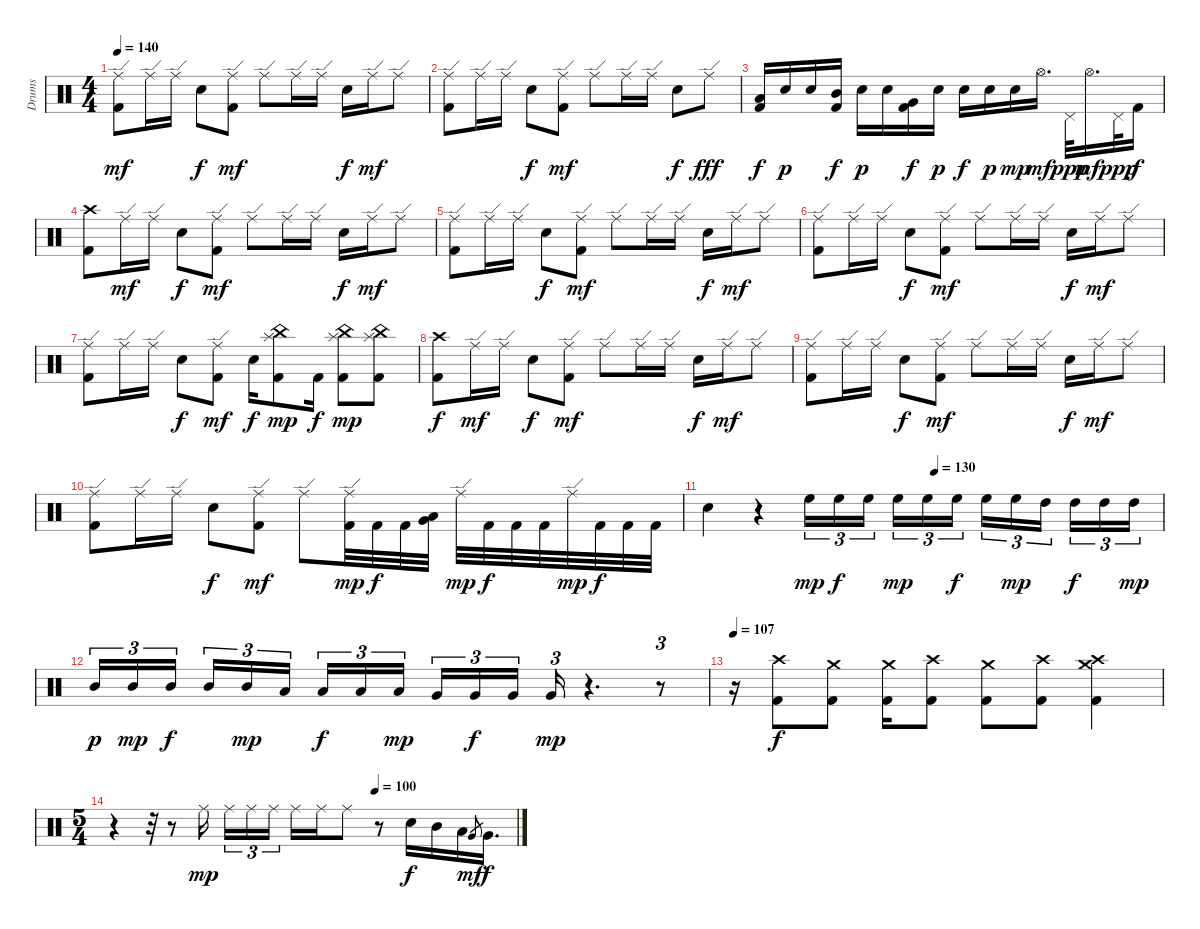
\bracketExtendMode groupsimilarinstruments
\otherSystemsTrackNameOrientation horizontal
\track ("Drumkit" "Drums") {instrument percussion}
\staff {score}
\articulation defaults
\ts (4 4)
\tempo 140
\clef neutral
\ks c
("Ride (edge)" "Kick (hit) 2").8{dy mf beam Down} "Ride (edge)".16{beam Down} "Ride (edge)".16{beam Down} "Snare (hit) 2".8{dy f beam Down} ("Ride (edge)" "Kick (hit) 2").8{dy mf beam Down} "Ride (edge)".8{beam Down} "Ride (edge)".16{beam Down} "Ride (edge)".16{beam Down} "Snare (hit) 2".16{dy f beam Down} "Ride (edge)".16{dy mf beam Down} "Ride (edge)".8{beam Down} |
("Ride (edge)" "Kick (hit) 2").8{beam Down} "Ride (edge)".16{beam Down} "Ride (edge)".16{beam Down} "Snare (hit) 2".8{dy f beam Down} ("Ride (edge)" "Kick (hit) 2").8{dy mf beam Down} "Ride (edge)".8{beam Down} "Ride (edge)".16{beam Down} "Ride (edge)".16{beam Down} "Snare (hit) 2".8{dy f beam Down} "Ride (edge)".8{dy fff beam Down} |
("Low Tom (hit)" "Kick (hit) 2").16{dy f beam Up} "Snare (hit) 2".16{dy p beam Up} "Snare (hit) 2".16{beam Up} ("Mid Tom (hit)" "Kick (hit) 2").16{dy f beam Up} "Snare (hit) 2".16{dy p beam Down} "Snare (hit) 2".16{beam Down} ("Very Low Tom (hit)" "Kick (hit) 2").16{dy f beam Down} "Snare (hit) 2".16{dy p beam Down} "Snare (hit) 2".16{dy f beam Down} "Snare (hit) 2".16{dy p beam Down} "Snare (hit) 2".16{dy mp beam Down} "Hi-Hat (open)".16{d dy mf beam Down} "Pedal Hi-Hat (hit)".32{dy ppp beam Down} "Hi-Hat (open)".16{d dy mf beam Down} "Pedal Hi-Hat (hit)".32{dy ppp beam Down} "Kick (hit) 2".16{dy f beam Down} |
("Crash high (hit)" "Kick (hit) 2").8{beam Down} "Ride (edge)".16{dy mf beam Down} "Ride (edge)".16{beam Down} "Snare (hit) 2".8{dy f beam Down} ("Ride (edge)" "Kick (hit) 2").8{dy mf beam Down} "Ride (edge)".8{beam Down} "Ride (edge)".16{beam Down} "Ride (edge)".16{beam Down} "Snare (hit) 2".16{dy f beam Down} "Ride (edge)".16{dy mf beam Down} "Ride (edge)".8{beam Down} |
("Ride (edge)" "Kick (hit) 2").8{beam Down} "Ride (edge)".16{beam Down} "Ride (edge)".16{beam Down} "Snare (hit) 2".8{dy f beam Down} ("Ride (edge)" "Kick (hit) 2").8{dy mf beam Down} "Ride (edge)".8{beam Down} "Ride (edge)".16{beam Down} "Ride (edge)".16{beam Down} "Snare (hit) 2".16{dy f beam Down} "Ride (edge)".16{dy mf beam Down} "Ride (edge)".8{beam Down} |
("Ride (edge)" "Kick (hit) 2").8{beam Down} "Ride (edge)".16{beam Down} "Ride (edge)".16{beam Down} "Snare (hit) 2".8{dy f beam Down} ("Ride (edge)" "Kick (hit) 2").8{dy mf beam Down} "Ride (edge)".8{beam Down} "Ride (edge)".16{beam Down} "Ride (edge)".16{beam Down} "Snare (hit) 2".16{dy f beam Down} "Ride (edge)".16{dy mf beam Down} "Ride (edge)".8{beam Down} |
("Ride (edge)" "Kick (hit) 2").8{beam Down} "Ride (edge)".16{beam Down} "Ride (edge)".16{beam Down} "Snare (hit) 2".8{dy f beam Down} ("Ride (edge)" "Kick (hit) 2").8{dy mf beam Down} "Snare (hit) 2".16{dy f beam Down} ("China (hit)" "Splash (hit)" "Kick (hit) 2").8{dy mp beam Down} "Kick (hit) 2".16{dy f beam Down} ("China (hit)" "Splash (hit)" "Kick (hit) 2").8{dy mp beam Down} ("China (hit)" "Splash (hit)" "Kick (hit) 2").8{beam Down} |
("Crash high (hit)" "Kick (hit) 2").8{dy f beam Down} "Ride (edge)".16{dy mf beam Down} "Ride (edge)".16{beam Down} "Snare (hit) 2".8{dy f beam Down} ("Ride (edge)" "Kick (hit) 2").8{dy mf beam Down} "Ride (edge)".8{beam Down} "Ride (edge)".16{beam Down} "Ride (edge)".16{beam Down} "Snare (hit) 2".16{dy f beam Down} "Ride (edge)".16{dy mf beam Down} "Ride (edge)".8{beam Down} |
("Ride (edge)" "Kick (hit) 2").8{beam Down} "Ride (edge)".16{beam Down} "Ride (edge)".16{beam Down} "Snare (hit) 2".8{dy f beam Down} ("Ride (edge)" "Kick (hit) 2").8{dy mf beam Down} "Ride (edge)".8{beam Down} "Ride (edge)".16{beam Down} "Ride (edge)".16{beam Down} "Snare (hit) 2".16{dy f beam Down} "Ride (edge)".16{dy mf beam Down} "Ride (edge)".8{beam Down} |
("Ride (edge)" "Kick (hit) 2").8{beam Down} "Ride (edge)".16{beam Down} "Ride (edge)".16{beam Down} "Snare (hit) 2".8{dy f beam Down} ("Ride (edge)" "Kick (hit) 2").8{dy mf beam Down} "Ride (edge)".8{beam Down} ("Ride (edge)" "Kick (hit) 2").32{dy mp beam Down} "Kick (hit) 2".32{dy f beam Down} "Kick (hit) 2".32{beam Down} ("Low Tom (hit)" "Very Low Tom (hit)").32{beam Down} "Ride (edge)".32{dy mp beam Down} "Kick (hit) 2".32{dy f beam Down} "Kick (hit) 2".32{beam Down} "Kick (hit) 2".32{beam Down} "Ride (edge)".32{dy mp beam Down} "Kick (hit) 2".32{dy f beam Down} "Kick (hit) 2".32{beam Down} "Kick (hit) 2".32{beam Down} |
\tempo (130 0.5)
"Snare (hit) 2".4{beam Down} r.4{beam Down} "High Floor Tom (hit)".16{tu (3 2) dy mp beam Down} "High Floor Tom (hit)".16{tu (3 2) dy f beam Down} "High Floor Tom (hit)".16{tu (3 2) beam Down} "High Floor Tom (hit)".16{tu (3 2) dy mp beam Down} "High Floor Tom (hit)".16{tu (3 2) beam Down} "High Floor Tom (hit)".16{tu (3 2) dy f beam Down} "High Floor Tom (hit)".16{tu (3 2) beam Down} "High Floor Tom (hit)".16{tu (3 2) dy mp beam Down} "High Tom (hit)".16{tu (3 2) beam Down} "High Tom (hit)".16{tu (3 2) dy f beam Down} "High Tom (hit)".16{tu (3 2) beam Down} "High Tom (hit)".16{tu (3 2) dy mp beam Down} |
"Mid Tom (hit)".16{tu (3 2) dy p beam Up} "Mid Tom (hit)".16{tu (3 2) dy mp beam Up} "Mid Tom (hit)".16{tu (3 2) dy f beam Up} "Mid Tom (hit)".16{tu (3 2) beam Up} "Mid Tom (hit)".16{tu (3 2) dy mp beam Up} "Low Tom (hit)".16{tu (3 2) beam Up} "Low Tom (hit)".16{tu (3 2) dy f beam Up} "Low Tom (hit)".16{tu (3 2) beam Up} "Low Tom (hit)".16{tu (3 2) dy mp beam Up} "Very Low Tom (hit)".16{tu (3 2) beam Up} "Very Low Tom (hit)".16{tu (3 2) dy f beam Up} "Very Low Tom (hit)".16{tu (3 2) beam Up} "Very Low Tom (hit)".16{tu (3 2) dy mp beam Up} r.4{d beam Up} r.8{tu (3 2) beam Up} |
\tempo 107
r.16{beam Down} ("Crash high (hit)" "Kick (hit) 2").8{dy f beam Down} ("Crash medium (hit)" "Kick (hit) 2").8{beam Down} ("Crash medium (hit)" "Kick (hit) 2").16{beam Down} ("Crash high (hit)" "Kick (hit) 2").8{beam Down} ("Crash medium (hit)" "Kick (hit) 2").8{beam Down} ("Crash high (hit)" "Kick (hit) 2").8{beam Down} ("Crash high (hit)" "Crash medium (hit)" "Kick (hit) 2").4{beam Down} |
\ts (5 4)
\beaming (8 6 4)
\tempo (100 0.65)
r.4{beam Down} r.32{beam Down} r.8{beam Down} "Ride (middle)".16{dy mp beam Down} "Ride (middle)".16{tu (3 2) beam Down} "Ride (middle)".16{tu (3 2) beam Down} "Ride (middle)".16{tu (3 2) beam Down} "Ride (middle)".16{beam Down} "Ride (middle)".16{beam Down} "Ride (middle)".8{beam Down} r.8{beam Down} "Snare (hit) 2".16{dy f beam Up} "Mid Tom (hit)".16{beam Up} "Low Tom (hit)".16{beam Up} "Very Low Tom (hit)".8{gr dy mf beam Up} "Very Low Tom (hit)".16{d dy f beam Up}
